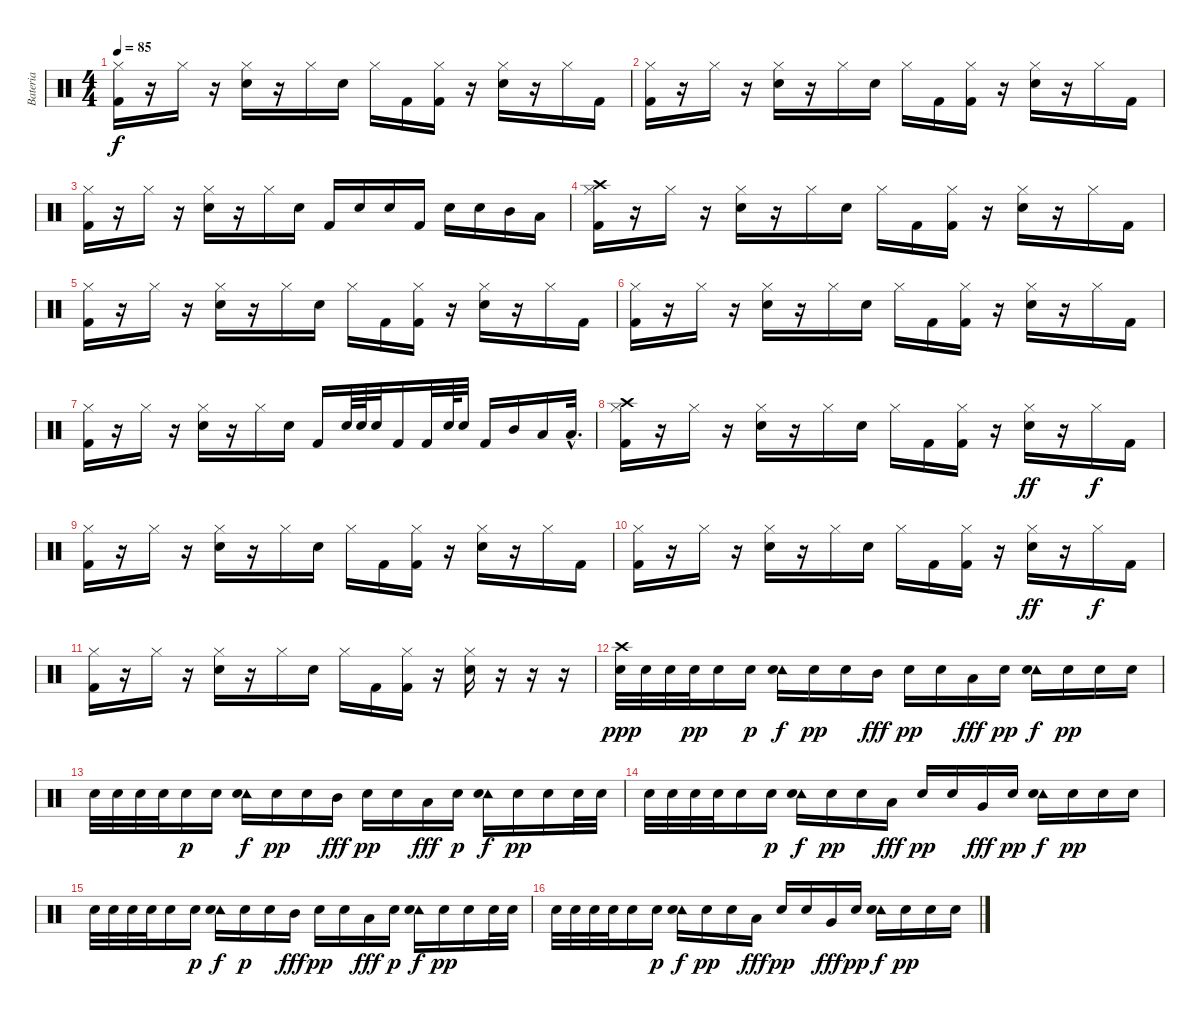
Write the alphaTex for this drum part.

\track ("Bateria" "Bateria") {instrument percussion}
\staff {score}
\articulation defaults
\ts (4 4)
\tempo 85
\clef neutral
\ks c
("Hi-Hat (closed)" "Kick (hit) 2").16{dy f} r.16 "Hi-Hat (closed)".16 r.16 ("Hi-Hat (closed)" "Snare (hit) 2").16 r.16 "Hi-Hat (closed)".16 "Snare (hit) 2".16 "Hi-Hat (closed)".16 "Kick (hit) 2".16 ("Hi-Hat (closed)" "Kick (hit) 2").16 r.16 ("Hi-Hat (closed)" "Snare (hit) 2").16 r.16 "Hi-Hat (closed)".16 "Kick (hit) 2".16 |
("Hi-Hat (closed)" "Kick (hit) 2").16 r.16 "Hi-Hat (closed)".16 r.16 ("Hi-Hat (closed)" "Snare (hit) 2").16 r.16 "Hi-Hat (closed)".16 "Snare (hit) 2".16 "Hi-Hat (closed)".16 "Kick (hit) 2".16 ("Hi-Hat (closed)" "Kick (hit) 2").16 r.16 ("Hi-Hat (closed)" "Snare (hit) 2").16 r.16 "Hi-Hat (closed)".16 "Kick (hit) 2".16 |
("Hi-Hat (closed)" "Kick (hit) 2").16 r.16 "Hi-Hat (closed)".16 r.16 ("Hi-Hat (closed)" "Snare (hit) 2").16 r.16 "Hi-Hat (closed)".16 "Snare (hit) 2".16 "Kick (hit) 2".16 "Snare (hit) 2".16 "Snare (hit) 2".16 "Kick (hit) 2".16 "Snare (hit) 2".16 "Snare (hit) 2".16 "Mid Tom (hit)".16 "Low Tom (hit)".16 |
("Crash high (hit)" "Hi-Hat (closed)" "Kick (hit) 2").16 r.16 "Hi-Hat (closed)".16 r.16 ("Hi-Hat (closed)" "Snare (hit) 2").16 r.16 "Hi-Hat (closed)".16 "Snare (hit) 2".16 "Hi-Hat (closed)".16 "Kick (hit) 2".16 ("Hi-Hat (closed)" "Kick (hit) 2").16 r.16 ("Hi-Hat (closed)" "Snare (hit) 2").16 r.16 "Hi-Hat (closed)".16 "Kick (hit) 2".16 |
("Hi-Hat (closed)" "Kick (hit) 2").16 r.16 "Hi-Hat (closed)".16 r.16 ("Hi-Hat (closed)" "Snare (hit) 2").16 r.16 "Hi-Hat (closed)".16 "Snare (hit) 2".16 "Hi-Hat (closed)".16 "Kick (hit) 2".16 ("Hi-Hat (closed)" "Kick (hit) 2").16 r.16 ("Hi-Hat (closed)" "Snare (hit) 2").16 r.16 "Hi-Hat (closed)".16 "Kick (hit) 2".16 |
("Hi-Hat (closed)" "Kick (hit) 2").16 r.16 "Hi-Hat (closed)".16 r.16 ("Hi-Hat (closed)" "Snare (hit) 2").16 r.16 "Hi-Hat (closed)".16 "Snare (hit) 2".16 "Hi-Hat (closed)".16 "Kick (hit) 2".16 ("Hi-Hat (closed)" "Kick (hit) 2").16 r.16 ("Hi-Hat (closed)" "Snare (hit) 2").16 r.16 "Hi-Hat (closed)".16 "Kick (hit) 2".16 |
("Hi-Hat (closed)" "Kick (hit) 2").16 r.16 "Hi-Hat (closed)".16 r.16 ("Hi-Hat (closed)" "Snare (hit) 2").16 r.16 "Hi-Hat (closed)".16 "Snare (hit) 2".16 "Kick (hit) 2".16 "Snare (hit) 2".64 "Snare (hit) 2".64 "Snare (hit) 2".32 "Kick (hit) 2".16 "Kick (hit) 2".32 "Snare (hit) 2".64 "Snare (hit) 2".32 "Kick (hit) 2".16 "Mid Tom (hit)".16 "Low Tom (hit)".16 "Low Tom (hit)"{hac}.32{d} |
("Crash high (hit)" "Hi-Hat (closed)" "Kick (hit) 2").16 r.16 "Hi-Hat (closed)".16 r.16 ("Hi-Hat (closed)" "Snare (hit) 2").16 r.16 "Hi-Hat (closed)".16 "Snare (hit) 2".16 "Hi-Hat (closed)".16 "Kick (hit) 2".16 ("Hi-Hat (closed)" "Kick (hit) 2").16 r.16 ("Hi-Hat (closed)" "Snare (hit) 2").16{dy ff} r.16 "Hi-Hat (closed)".16{dy f} "Kick (hit) 2".16 |
("Hi-Hat (closed)" "Kick (hit) 2").16 r.16 "Hi-Hat (closed)".16 r.16 ("Hi-Hat (closed)" "Snare (hit) 2").16 r.16 "Hi-Hat (closed)".16 "Snare (hit) 2".16 "Hi-Hat (closed)".16 "Kick (hit) 2".16 ("Hi-Hat (closed)" "Kick (hit) 2").16 r.16 ("Hi-Hat (closed)" "Snare (hit) 2").16 r.16 "Hi-Hat (closed)".16 "Kick (hit) 2".16 |
("Hi-Hat (closed)" "Kick (hit) 2").16 r.16 "Hi-Hat (closed)".16 r.16 ("Hi-Hat (closed)" "Snare (hit) 2").16 r.16 "Hi-Hat (closed)".16 "Snare (hit) 2".16 "Hi-Hat (closed)".16 "Kick (hit) 2".16 ("Hi-Hat (closed)" "Kick (hit) 2").16 r.16 ("Hi-Hat (closed)" "Snare (hit) 2").16{dy ff} r.16 "Hi-Hat (closed)".16{dy f} "Kick (hit) 2".16 |
("Hi-Hat (closed)" "Kick (hit) 2").16 r.16 "Hi-Hat (closed)".16 r.16 ("Hi-Hat (closed)" "Snare (hit) 2").16 r.16 "Hi-Hat (closed)".16 "Snare (hit) 2".16 "Hi-Hat (closed)".16 "Kick (hit) 2".16 ("Hi-Hat (closed)" "Kick (hit) 2").16 r.16 ("Hi-Hat (closed)" "Snare (hit) 2").16 r.16 r.16 r.16 |
("Crash high (hit)" "Snare (hit) 2").32{dy ppp} "Snare (hit) 2".32 "Snare (hit) 2".32 "Snare (hit) 2".32{dy pp} "Snare (hit) 2".16 "Snare (hit) 2".16{dy p} ("Tambourine (hit)" "Snare (hit) 2").16{dy f} "Snare (hit) 2".16{dy pp} "Snare (hit) 2".16 "Mid Tom (hit)".16{dy fff} "Snare (hit) 2".16{dy pp} "Snare (hit) 2".16 "Low Tom (hit)".16{dy fff} "Snare (hit) 2".16{dy pp} ("Tambourine (hit)" "Snare (hit) 2").16{dy f} "Snare (hit) 2".16{dy pp} "Snare (hit) 2".16 "Snare (hit) 2".16 |
"Snare (hit) 2".32 "Snare (hit) 2".32 "Snare (hit) 2".32 "Snare (hit) 2".32 "Snare (hit) 2".16{dy p} "Snare (hit) 2".16 ("Tambourine (hit)" "Snare (hit) 2").16{dy f} "Snare (hit) 2".16{dy pp} "Snare (hit) 2".16 "Mid Tom (hit)".16{dy fff} "Snare (hit) 2".16{dy pp} "Snare (hit) 2".16 "Low Tom (hit)".16{dy fff} "Snare (hit) 2".16{dy p} ("Tambourine (hit)" "Snare (hit) 2").16{dy f} "Snare (hit) 2".16{dy pp} "Snare (hit) 2".16 "Snare (hit) 2".32 "Snare (hit) 2".32 |
"Snare (hit) 2".32 "Snare (hit) 2".32 "Snare (hit) 2".32 "Snare (hit) 2".32 "Snare (hit) 2".16 "Snare (hit) 2".16{dy p} ("Tambourine (hit)" "Snare (hit) 2").16{dy f} "Snare (hit) 2".16{dy pp} "Snare (hit) 2".16 "Low Tom (hit)".16{dy fff} "Snare (hit) 2".16{dy pp} "Snare (hit) 2".16 "Very Low Tom (hit)".16{dy fff} "Snare (hit) 2".16{dy pp} ("Tambourine (hit)" "Snare (hit) 2").16{dy f} "Snare (hit) 2".16{dy pp} "Snare (hit) 2".16 "Snare (hit) 2".16 |
"Snare (hit) 2".32 "Snare (hit) 2".32 "Snare (hit) 2".32 "Snare (hit) 2".32 "Snare (hit) 2".16 "Snare (hit) 2".16{dy p} ("Tambourine (hit)" "Snare (hit) 2").16{dy f} "Snare (hit) 2".16{dy p} "Snare (hit) 2".16 "Mid Tom (hit)".16{dy fff} "Snare (hit) 2".16{dy pp} "Snare (hit) 2".16 "Low Tom (hit)".16{dy fff} "Snare (hit) 2".16{dy p} ("Tambourine (hit)" "Snare (hit) 2").16{dy f} "Snare (hit) 2".16{dy pp} "Snare (hit) 2".16 "Snare (hit) 2".32 "Snare (hit) 2".32 |
"Snare (hit) 2".32{volume 11} "Snare (hit) 2".32 "Snare (hit) 2".32 "Snare (hit) 2".32 "Snare (hit) 2".16 "Snare (hit) 2".16{dy p} ("Tambourine (hit)" "Snare (hit) 2").16{dy f} "Snare (hit) 2".16{dy pp} "Snare (hit) 2".16 "Low Tom (hit)".16{dy fff} "Snare (hit) 2".16{dy pp} "Snare (hit) 2".16 "Very Low Tom (hit)".16{dy fff} "Snare (hit) 2".16{dy pp} ("Tambourine (hit)" "Snare (hit) 2").16{dy f} "Snare (hit) 2".16{dy pp} "Snare (hit) 2".16 "Snare (hit) 2".16
